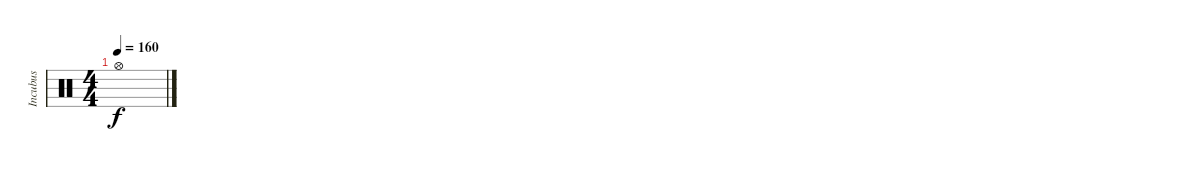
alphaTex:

\track ("Incubus" "Incubus") {instrument percussion}
\staff {score}
\articulation defaults
\ts (4 4)
\tempo 160
\clef neutral
\ks c "Hi-Hat (open)"{t}.1{dy f}
